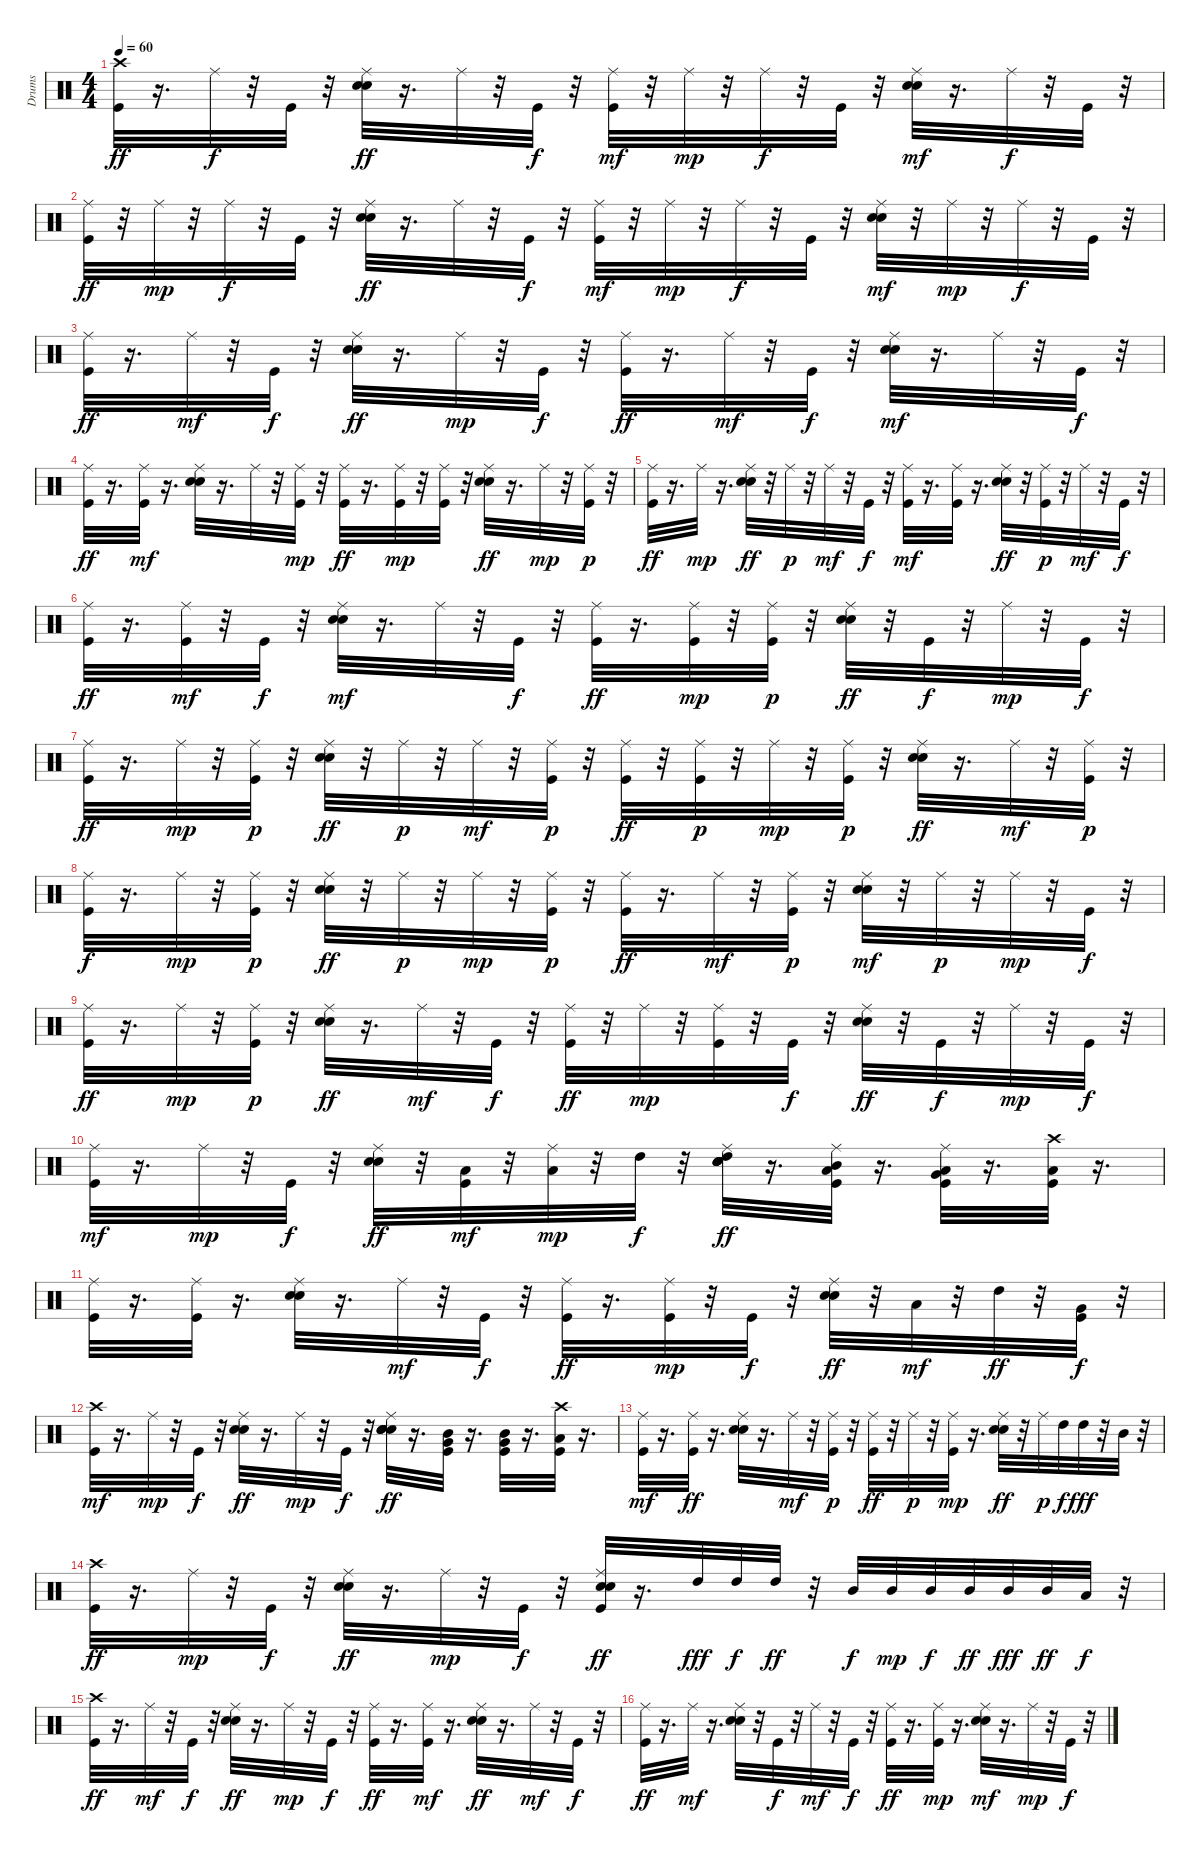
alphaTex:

\track ("Drums" "Drums") {instrument percussion}
\staff {score}
\articulation defaults
\ts (4 4)
\tempo 60
\clef neutral
\ks c
("Crash high (hit)" "Kick (hit)").32{dy ff} r.16{d} "Ride (middle)".32{dy f} r.32 "Kick (hit)".32 r.32 ("Ride (middle)" "Snare (hit) 2" "Electric Snare (hit)").32{dy ff} r.16{d} "Ride (middle)".32 r.32 "Kick (hit)".32{dy f} r.32 ("Kick (hit)" "Ride (middle)").32{dy mf} r.32 "Ride (middle)".32{dy mp} r.32 "Ride (middle)".32{dy f} r.32 "Kick (hit)".32 r.32 ("Snare (hit) 2" "Electric Snare (hit)" "Ride (middle)").32{dy mf} r.16{d} "Ride (middle)".32{dy f} r.32 "Kick (hit)".32 r.32 |
("Ride (middle)" "Kick (hit)").32{dy ff} r.32 "Ride (middle)".32{dy mp} r.32 "Ride (middle)".32{dy f} r.32 "Kick (hit)".32 r.32 ("Snare (hit) 2" "Electric Snare (hit)" "Ride (middle)").32{dy ff} r.16{d} "Ride (middle)".32 r.32 "Kick (hit)".32{dy f} r.32 ("Kick (hit)" "Ride (middle)").32{dy mf} r.32 "Ride (middle)".32{dy mp} r.32 "Ride (middle)".32{dy f} r.32 "Kick (hit)".32 r.32 ("Snare (hit) 2" "Electric Snare (hit)" "Ride (middle)").32{dy mf} r.32 "Ride (middle)".32{dy mp} r.32 "Ride (middle)".32{dy f} r.32 "Kick (hit)".32 r.32 |
("Kick (hit)" "Ride (middle)").32{dy ff} r.16{d} "Ride (middle)".32{dy mf} r.32 "Kick (hit)".32{dy f} r.32 ("Snare (hit) 2" "Electric Snare (hit)" "Ride (middle)").32{dy ff} r.16{d} "Ride (middle)".32{dy mp} r.32 "Kick (hit)".32{dy f} r.32 ("Ride (middle)" "Kick (hit)").32{dy ff} r.16{d} "Ride (middle)".32{dy mf} r.32 "Kick (hit)".32{dy f} r.32 ("Ride (middle)" "Electric Snare (hit)" "Snare (hit) 2").32{dy mf} r.16{d} "Ride (middle)".32 r.32 "Kick (hit)".32{dy f} r.32 |
("Ride (middle)" "Kick (hit)").32{dy ff} r.16{d} ("Ride (middle)" "Kick (hit)").32{dy mf} r.16{d} ("Ride (middle)" "Electric Snare (hit)" "Snare (hit) 2").32 r.16{d} "Ride (middle)".32 r.32 ("Ride (middle)" "Kick (hit)").32{dy mp} r.32 ("Ride (middle)" "Kick (hit)").32{dy ff} r.16{d} ("Ride (middle)" "Kick (hit)").32{dy mp} r.32 ("Ride (middle)" "Kick (hit)").32 r.32 ("Ride (middle)" "Snare (hit) 2" "Electric Snare (hit)").32{dy ff} r.16{d} "Ride (middle)".32{dy mp} r.32 ("Kick (hit)" "Ride (middle)").32{dy p} r.32 |
("Ride (middle)" "Kick (hit)").32{dy ff} r.16{d} "Ride (middle)".32{dy mp} r.16{d} ("Ride (middle)" "Snare (hit) 2" "Electric Snare (hit)").32{dy ff} r.32 "Ride (middle)".32{dy p} r.32 "Ride (middle)".32{dy mf} r.32 "Kick (hit)".32{dy f} r.32 ("Ride (middle)" "Kick (hit)").32{dy mf} r.16{d} ("Kick (hit)" "Ride (middle)").32 r.16{d} ("Ride (middle)" "Snare (hit) 2" "Electric Snare (hit)").32{dy ff} r.32 ("Kick (hit)" "Ride (middle)").32{dy p} r.32 "Ride (middle)".32{dy mf} r.32 "Kick (hit)".32{dy f} r.32 |
("Ride (middle)" "Kick (hit)").32{dy ff} r.16{d} ("Ride (middle)" "Kick (hit)").32{dy mf} r.32 "Kick (hit)".32{dy f} r.32 ("Snare (hit) 2" "Electric Snare (hit)" "Ride (middle)").32{dy mf} r.16{d} "Ride (middle)".32 r.32 "Kick (hit)".32{dy f} r.32 ("Ride (middle)" "Kick (hit)").32{dy ff} r.16{d} ("Ride (middle)" "Kick (hit)").32{dy mp} r.32 ("Kick (hit)" "Ride (middle)").32{dy p} r.32 ("Ride (middle)" "Snare (hit) 2" "Electric Snare (hit)").32{dy ff} r.32 "Kick (hit)".32{dy f} r.32 "Ride (middle)".32{dy mp} r.32 "Kick (hit)".32{dy f} r.32 |
("Ride (middle)" "Kick (hit)").32{dy ff} r.16{d} "Ride (middle)".32{dy mp} r.32 ("Ride (middle)" "Kick (hit)").32{dy p} r.32 ("Snare (hit) 2" "Electric Snare (hit)" "Ride (middle)").32{dy ff} r.32 "Ride (middle)".32{dy p} r.32 "Ride (middle)".32{dy mf} r.32 ("Ride (middle)" "Kick (hit)").32{dy p} r.32 ("Ride (middle)" "Kick (hit)").32{dy ff} r.32 ("Ride (middle)" "Kick (hit)").32{dy p} r.32 "Ride (middle)".32{dy mp} r.32 ("Kick (hit)" "Ride (middle)").32{dy p} r.32 ("Ride (middle)" "Snare (hit) 2" "Electric Snare (hit)").32{dy ff} r.16{d} "Ride (middle)".32{dy mf} r.32 ("Kick (hit)" "Ride (middle)").32{dy p} r.32 |
("Ride (middle)" "Kick (hit)").32{dy f} r.16{d} "Ride (middle)".32{dy mp} r.32 ("Kick (hit)" "Ride (middle)").32{dy p} r.32 ("Snare (hit) 2" "Electric Snare (hit)" "Ride (middle)").32{dy ff} r.32 "Ride (middle)".32{dy p} r.32 "Ride (middle)".32{dy mp} r.32 ("Ride (middle)" "Kick (hit)").32{dy p} r.32 ("Ride (middle)" "Kick (hit)").32{dy ff} r.16{d} "Ride (middle)".32{dy mf} r.32 ("Ride (middle)" "Kick (hit)").32{dy p} r.32 ("Electric Snare (hit)" "Snare (hit) 2" "Ride (middle)").32{dy mf} r.32 "Ride (middle)".32{dy p} r.32 "Ride (middle)".32{dy mp} r.32 "Kick (hit)".32{dy f} r.32 |
("Kick (hit)" "Ride (middle)").32{dy ff} r.16{d} "Ride (middle)".32{dy mp} r.32 ("Kick (hit)" "Ride (middle)").32{dy p} r.32 ("Ride (middle)" "Snare (hit) 2" "Electric Snare (hit)").32{dy ff} r.16{d} "Ride (middle)".32{dy mf} r.32 "Kick (hit)".32{dy f} r.32 ("Ride (middle)" "Kick (hit)").32{dy ff} r.32 "Ride (middle)".32{dy mp} r.32 ("Kick (hit)" "Ride (middle)").32 r.32 "Kick (hit)".32{dy f} r.32 ("Ride (middle)" "Snare (hit) 2" "Electric Snare (hit)").32{dy ff} r.32 "Kick (hit)".32{dy f} r.32 "Ride (middle)".32{dy mp} r.32 "Kick (hit)".32{dy f} r.32 |
("Kick (hit)" "Ride (middle)").32{dy mf} r.16{d} "Ride (middle)".32{dy mp} r.32 "Kick (hit)".32{dy f} r.32 ("Ride (middle)" "Snare (hit) 2" "Electric Snare (hit)").32{dy ff} r.32 ("Low Tom (hit)" "Kick (hit)").32{dy mf} r.32 ("Ride (middle)" "Low Tom (hit)").32{dy mp} r.32 "High Tom (hit)".32{dy f} r.32 ("Snare (hit) 2" "Electric Snare (hit)" "Ride (middle)" "Snare (hit) 2" "Electric Snare (hit)" "High Tom (hit)").32{dy ff} r.16{d} ("Ride (middle)" "Mid Tom (hit)" "Low Tom (hit)" "Kick (hit)").32 r.16{d} ("Low Tom (hit)" "Ride (middle)" "Very Low Tom (hit)" "Kick (hit)").32 r.16{d} ("Low Floor Tom (hit)" "Crash high (hit)" "Kick (hit)").32 r.16{d} |
("Ride (middle)" "Kick (hit)").32 r.16{d} ("Ride (middle)" "Kick (hit)").32 r.16{d} ("Ride (middle)" "Snare (hit) 2" "Electric Snare (hit)").32 r.16{d} "Ride (middle)".32{dy mf} r.32 "Kick (hit)".32{dy f} r.32 ("Ride (middle)" "Kick (hit)").32{dy ff} r.16{d} ("Kick (hit)" "Ride (middle)").32{dy mp} r.32 "Kick (hit)".32{dy f} r.32 ("Snare (hit) 2" "Electric Snare (hit)" "Ride (middle)").32{dy ff} r.32 "Low Tom (hit)".32{dy mf} r.32 "High Tom (hit)".32{dy ff} r.32 ("Very Low Tom (hit)" "Kick (hit)").32{dy f} r.32 |
("Kick (hit)" "Crash high (hit)").32{dy mf} r.16{d} "Ride (middle)".32{dy mp} r.32 "Kick (hit)".32{dy f} r.32 ("Electric Snare (hit)" "Snare (hit) 2" "Ride (middle)").32{dy ff} r.16{d} "Ride (middle)".32{dy mp} r.32 "Kick (hit)".32{dy f} r.32 ("Snare (hit) 2" "Electric Snare (hit)" "Ride (middle)" "Snare (hit) 2" "Electric Snare (hit)").32{dy ff} r.16{d} ("Very Low Tom (hit)" "Kick (hit)" "Mid Tom (hit)").32 r.16{d} ("Very Low Tom (hit)" "Mid Tom (hit)" "Kick (hit)").32 r.16{d} ("Low Floor Tom (hit)" "Crash high (hit)" "Kick (hit)").32 r.16{d} |
("Kick (hit)" "Ride (middle)").32{dy mf} r.16{d} ("Ride (middle)" "Kick (hit)").32{dy ff} r.16{d} ("Ride (middle)" "Snare (hit) 2" "Electric Snare (hit)").32 r.16{d} "Ride (middle)".32{dy mf} r.32 ("Kick (hit)" "Ride (middle)").32{dy p} r.32 ("Ride (middle)" "Kick (hit)").32{dy ff} r.32 "Ride (middle)".32{dy p} r.32 ("Kick (hit)" "Ride (middle)").32{dy mp} r.16{d} ("Electric Snare (hit)" "Snare (hit) 2" "Ride (middle)").32{dy ff} r.32 "Ride (middle)".32{dy p} "High Tom (hit)".32{dy f} "High Tom (hit)".32{dy fff} r.32 "Mid Tom (hit)".32 r.32 |
("Crash high (hit)" "Kick (hit)").32{dy ff} r.16{d} "Ride (middle)".32{dy mp} r.32 "Kick (hit)".32{dy f} r.32 ("Electric Snare (hit)" "Ride (middle)" "Snare (hit) 2").32{dy ff} r.16{d} "Ride (middle)".32{dy mp} r.32 "Kick (hit)".32{dy f} r.32 ("Ride (middle)" "Snare (hit) 2" "Electric Snare (hit)" "Kick (hit)").32{dy ff} r.16{d} "High Tom (hit)".32{dy fff} "High Tom (hit)".32{dy f} "High Tom (hit)".32{dy ff} r.32 "Mid Tom (hit)".32{dy f} "Mid Tom (hit)".32{dy mp} "Mid Tom (hit)".32{dy f} "Mid Tom (hit)".32{dy ff} "Mid Tom (hit)".32{dy fff} "Mid Tom (hit)".32{dy ff} "Low Tom (hit)".32{dy f} r.32 |
("Kick (hit)" "Crash high (hit)").32{dy ff} r.16{d} "Ride (middle)".32{dy mf} r.32 "Kick (hit)".32{dy f} r.32 ("Snare (hit) 2" "Electric Snare (hit)" "Ride (middle)").32{dy ff} r.16{d} "Ride (middle)".32{dy mp} r.32 "Kick (hit)".32{dy f} r.32 ("Ride (middle)" "Kick (hit)").32{dy ff} r.16{d} ("Ride (middle)" "Kick (hit)").32{dy mf} r.16{d} ("Ride (middle)" "Snare (hit) 2" "Electric Snare (hit)").32{dy ff} r.16{d} "Ride (middle)".32{dy mf} r.32 "Kick (hit)".32{dy f} r.32 |
("Ride (middle)" "Kick (hit)").32{dy ff} r.16{d} "Ride (middle)".32{dy mf} r.16{d} ("Electric Snare (hit)" "Snare (hit) 2" "Ride (middle)").32 r.32 "Kick (hit)".32{dy f} r.32 "Ride (middle)".32{dy mf} r.32 "Kick (hit)".32{dy f} r.32 ("Ride (middle)" "Kick (hit)").32{dy ff} r.16{d} ("Ride (middle)" "Kick (hit)").32{dy mp} r.16{d} ("Ride (middle)" "Electric Snare (hit)" "Snare (hit) 2").32{dy mf} r.16{d} "Ride (middle)".32{dy mp} r.32 "Kick (hit)".32{dy f} r.32
